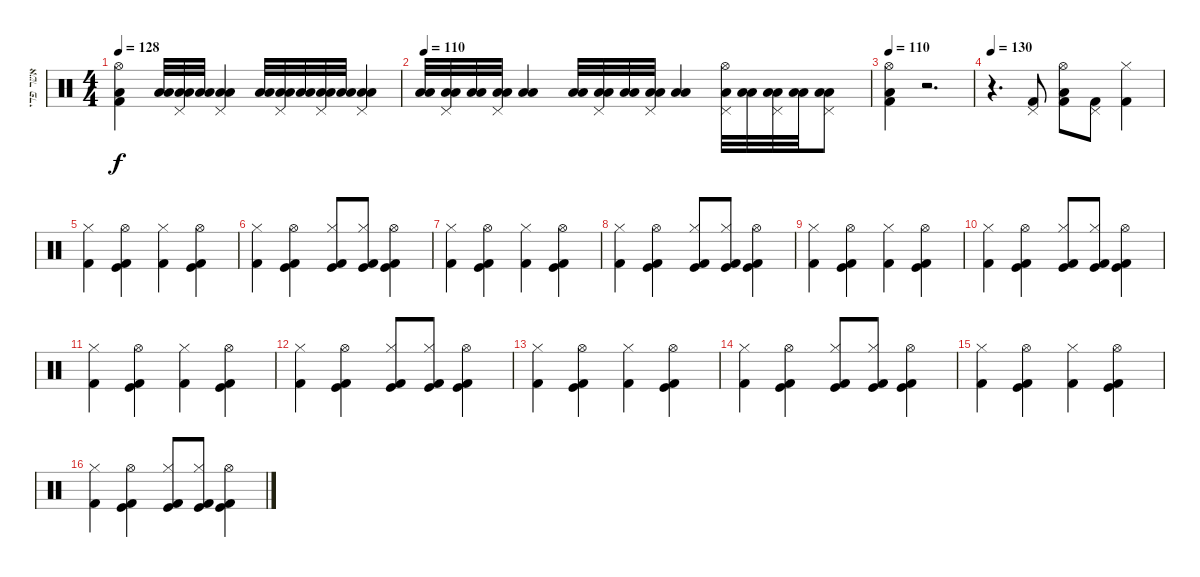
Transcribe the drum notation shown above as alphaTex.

\track ("אשר פדי" "אשר פדי") {instrument percussion}
\staff {score}
\articulation defaults
\ts (4 4)
\tempo 128
\tempo 110
\tempo 128
\clef neutral
\ks c
("Hi-Hat (open)" "Kick (hit) 2" "Low Floor Tom (hit)").4{dy f} ("Low Tom (hit)" "Low Floor Tom (hit)").32 ("Pedal Hi-Hat (hit)" "Low Floor Tom (hit)" "Low Tom (hit)").32 ("Low Floor Tom (hit)" "Low Tom (hit)").32 ("Pedal Hi-Hat (hit)" "Low Floor Tom (hit)" "Low Tom (hit)").4 ("Low Floor Tom (hit)" "Low Tom (hit)").32 ("Pedal Hi-Hat (hit)" "Low Floor Tom (hit)" "Low Tom (hit)").32 ("Low Floor Tom (hit)" "Low Tom (hit)").32 ("Pedal Hi-Hat (hit)" "Low Floor Tom (hit)" "Low Tom (hit)").32 ("Low Floor Tom (hit)" "Low Tom (hit)").32 ("Pedal Hi-Hat (hit)" "Low Floor Tom (hit)" "Low Tom (hit)").4 |
\tempo 110
("Low Tom (hit)" "Low Floor Tom (hit)").32 ("Pedal Hi-Hat (hit)" "Low Floor Tom (hit)" "Low Tom (hit)").32 ("Low Floor Tom (hit)" "Low Tom (hit)").32 ("Pedal Hi-Hat (hit)" "Low Floor Tom (hit)" "Low Tom (hit)").32 ("Low Floor Tom (hit)" "Low Tom (hit)").4 ("Low Tom (hit)" "Low Floor Tom (hit)").32 ("Pedal Hi-Hat (hit)" "Low Tom (hit)" "Low Floor Tom (hit)").32 ("Low Floor Tom (hit)" "Low Tom (hit)").32 ("Pedal Hi-Hat (hit)" "Low Floor Tom (hit)" "Low Tom (hit)").32 ("Low Floor Tom (hit)" "Low Tom (hit)").4 ("Pedal Hi-Hat (hit)" "Hi-Hat (open)" "Low Floor Tom (hit)").32 ("Low Tom (hit)" "Low Floor Tom (hit)").32 ("Pedal Hi-Hat (hit)" "Low Tom (hit)" "Low Floor Tom (hit)").32 ("Low Floor Tom (hit)" "Low Tom (hit)").32 ("Pedal Hi-Hat (hit)" "Low Floor Tom (hit)" "Low Tom (hit)").8 |
\tempo 110
("Kick (hit) 2" "Hi-Hat (open)" "Low Floor Tom (hit)").4 r.2{d} |
\tempo 130
r.4{d} ("Pedal Hi-Hat (hit)" "Kick (hit) 2").8 ("Kick (hit) 2" "Hi-Hat (open)" "Low Floor Tom (hit)").8 ("Kick (hit) 2" "Pedal Hi-Hat (hit)").8 ("Kick (hit) 2" "Hi-Hat (closed)").4 |
("Kick (hit) 2" "Hi-Hat (closed)").4 ("Hi-Hat (open)" "Kick (hit) 2" "Kick (hit)").4 ("Kick (hit) 2" "Hi-Hat (closed)").4 ("Hi-Hat (open)" "Kick (hit) 2" "Kick (hit)").4 |
("Kick (hit) 2" "Hi-Hat (closed)").4 ("Kick (hit) 2" "Hi-Hat (open)" "Kick (hit)").4 ("Kick (hit) 2" "Hi-Hat (closed)" "Kick (hit)").8 ("Kick (hit) 2" "Hi-Hat (closed)" "Kick (hit)").8 ("Hi-Hat (open)" "Kick (hit) 2" "Kick (hit)").4 |
("Kick (hit) 2" "Hi-Hat (closed)").4 ("Hi-Hat (open)" "Kick (hit) 2" "Kick (hit)").4 ("Kick (hit) 2" "Hi-Hat (closed)").4 ("Hi-Hat (open)" "Kick (hit) 2" "Kick (hit)").4 |
("Kick (hit) 2" "Hi-Hat (closed)").4 ("Kick (hit) 2" "Hi-Hat (open)" "Kick (hit)").4 ("Kick (hit) 2" "Hi-Hat (closed)" "Kick (hit)").8 ("Kick (hit) 2" "Hi-Hat (closed)" "Kick (hit)").8 ("Hi-Hat (open)" "Kick (hit) 2" "Kick (hit)").4 |
("Kick (hit) 2" "Hi-Hat (closed)").4 ("Hi-Hat (open)" "Kick (hit) 2" "Kick (hit)").4 ("Kick (hit) 2" "Hi-Hat (closed)").4 ("Hi-Hat (open)" "Kick (hit) 2" "Kick (hit)").4 |
("Kick (hit) 2" "Hi-Hat (closed)").4 ("Kick (hit) 2" "Hi-Hat (open)" "Kick (hit)").4 ("Kick (hit) 2" "Hi-Hat (closed)" "Kick (hit)").8 ("Kick (hit) 2" "Hi-Hat (closed)" "Kick (hit)").8 ("Hi-Hat (open)" "Kick (hit) 2" "Kick (hit)").4 |
("Kick (hit) 2" "Hi-Hat (closed)").4 ("Hi-Hat (open)" "Kick (hit) 2" "Kick (hit)").4 ("Kick (hit) 2" "Hi-Hat (closed)").4 ("Hi-Hat (open)" "Kick (hit) 2" "Kick (hit)").4 |
("Kick (hit) 2" "Hi-Hat (closed)").4 ("Kick (hit) 2" "Hi-Hat (open)" "Kick (hit)").4 ("Kick (hit) 2" "Hi-Hat (closed)" "Kick (hit)").8 ("Kick (hit) 2" "Hi-Hat (closed)" "Kick (hit)").8 ("Hi-Hat (open)" "Kick (hit) 2" "Kick (hit)").4 |
("Kick (hit) 2" "Hi-Hat (closed)").4 ("Hi-Hat (open)" "Kick (hit) 2" "Kick (hit)").4 ("Kick (hit) 2" "Hi-Hat (closed)").4 ("Hi-Hat (open)" "Kick (hit) 2" "Kick (hit)").4 |
("Kick (hit) 2" "Hi-Hat (closed)").4 ("Kick (hit) 2" "Hi-Hat (open)" "Kick (hit)").4 ("Kick (hit) 2" "Hi-Hat (closed)" "Kick (hit)").8 ("Kick (hit) 2" "Hi-Hat (closed)" "Kick (hit)").8 ("Hi-Hat (open)" "Kick (hit) 2" "Kick (hit)").4 |
("Kick (hit) 2" "Hi-Hat (closed)").4 ("Hi-Hat (open)" "Kick (hit) 2" "Kick (hit)").4 ("Kick (hit) 2" "Hi-Hat (closed)").4 ("Hi-Hat (open)" "Kick (hit) 2" "Kick (hit)").4 |
("Kick (hit) 2" "Hi-Hat (closed)").4 ("Kick (hit) 2" "Hi-Hat (open)" "Kick (hit)").4 ("Kick (hit) 2" "Hi-Hat (closed)" "Kick (hit)").8 ("Kick (hit) 2" "Hi-Hat (closed)" "Kick (hit)").8 ("Hi-Hat (open)" "Kick (hit) 2" "Kick (hit)").4
